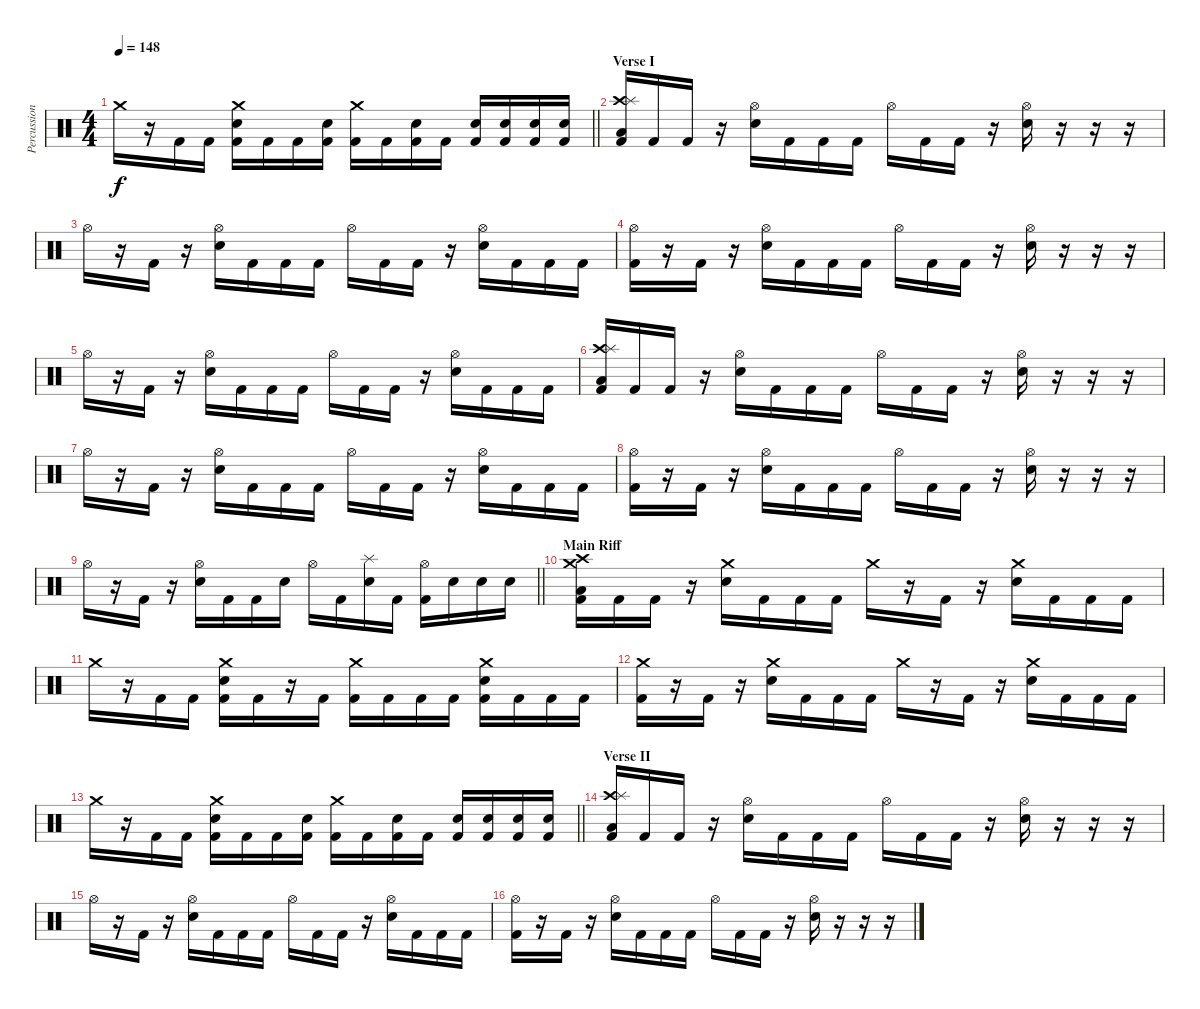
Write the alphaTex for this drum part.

\track ("Percussion" "Percussion") {instrument percussion}
\staff {score}
\articulation defaults
\ts (4 4)
\tempo 148
\clef neutral
\barLineRight lightlight
\ks c "Crash medium (hit)".16{dy f}
r.16 "Kick (hit) 2".16 "Kick (hit) 2".16 ("Crash medium (hit)" "Electric Snare (hit)" "Kick (hit) 2").16 "Kick (hit) 2".16 "Kick (hit) 2".16 ("Electric Snare (hit)" "Kick (hit) 2").16 ("Crash medium (hit)" "Kick (hit) 2").16 "Kick (hit) 2".16 ("Electric Snare (hit)" "Kick (hit) 2").16 "Kick (hit) 2".16 ("Electric Snare (hit)" "Kick (hit) 2").16 ("Electric Snare (hit)" "Kick (hit) 2").16 ("Electric Snare (hit)" "Kick (hit) 2").16 ("Electric Snare (hit)" "Kick (hit) 2").16 |
\section ("" "Verse I")
("Crash high (hit)" "Splash (hit)" "Low Floor Tom (hit)" "Kick (hit) 2").16 "Kick (hit) 2".16 "Kick (hit) 2".16 r.16 ("Hi-Hat (open)" "Electric Snare (hit)").16 "Kick (hit) 2".16 "Kick (hit) 2".16 "Kick (hit) 2".16 "Hi-Hat (open)".16 "Kick (hit) 2".16 "Kick (hit) 2".16 r.16 ("Hi-Hat (open)" "Electric Snare (hit)").16 r.16 r.16 r.16 |
"Hi-Hat (open)".16 r.16 "Kick (hit) 2".16 r.16 ("Hi-Hat (open)" "Electric Snare (hit)").16 "Kick (hit) 2".16 "Kick (hit) 2".16 "Kick (hit) 2".16 "Hi-Hat (open)".16 "Kick (hit) 2".16 "Kick (hit) 2".16 r.16 ("Hi-Hat (open)" "Electric Snare (hit)").16 "Kick (hit) 2".16 "Kick (hit) 2".16 "Kick (hit) 2".16 |
("Hi-Hat (open)" "Kick (hit) 2").16 r.16 "Kick (hit) 2".16 r.16 ("Hi-Hat (open)" "Electric Snare (hit)").16 "Kick (hit) 2".16 "Kick (hit) 2".16 "Kick (hit) 2".16 "Hi-Hat (open)".16 "Kick (hit) 2".16 "Kick (hit) 2".16 r.16 ("Hi-Hat (open)" "Electric Snare (hit)").16 r.16 r.16 r.16 |
"Hi-Hat (open)".16 r.16 "Kick (hit) 2".16 r.16 ("Hi-Hat (open)" "Electric Snare (hit)").16 "Kick (hit) 2".16 "Kick (hit) 2".16 "Kick (hit) 2".16 "Hi-Hat (open)".16 "Kick (hit) 2".16 "Kick (hit) 2".16 r.16 ("Hi-Hat (open)" "Electric Snare (hit)").16 "Kick (hit) 2".16 "Kick (hit) 2".16 "Kick (hit) 2".16 |
("Crash high (hit)" "Splash (hit)" "Low Floor Tom (hit)" "Kick (hit) 2").16 "Kick (hit) 2".16 "Kick (hit) 2".16 r.16 ("Hi-Hat (open)" "Electric Snare (hit)").16 "Kick (hit) 2".16 "Kick (hit) 2".16 "Kick (hit) 2".16 "Hi-Hat (open)".16 "Kick (hit) 2".16 "Kick (hit) 2".16 r.16 ("Hi-Hat (open)" "Electric Snare (hit)").16 r.16 r.16 r.16 |
"Hi-Hat (open)".16 r.16 "Kick (hit) 2".16 r.16 ("Hi-Hat (open)" "Electric Snare (hit)").16 "Kick (hit) 2".16 "Kick (hit) 2".16 "Kick (hit) 2".16 "Hi-Hat (open)".16 "Kick (hit) 2".16 "Kick (hit) 2".16 r.16 ("Hi-Hat (open)" "Electric Snare (hit)").16 "Kick (hit) 2".16 "Kick (hit) 2".16 "Kick (hit) 2".16 |
("Hi-Hat (open)" "Kick (hit) 2").16 r.16 "Kick (hit) 2".16 r.16 ("Hi-Hat (open)" "Electric Snare (hit)").16 "Kick (hit) 2".16 "Kick (hit) 2".16 "Kick (hit) 2".16 "Hi-Hat (open)".16 "Kick (hit) 2".16 "Kick (hit) 2".16 r.16 ("Hi-Hat (open)" "Electric Snare (hit)").16 r.16 r.16 r.16 |
\barLineRight lightlight "Hi-Hat (open)".16
r.16 "Kick (hit) 2".16 r.16 ("Hi-Hat (open)" "Electric Snare (hit)").16 "Kick (hit) 2".16 "Kick (hit) 2".16 "Electric Snare (hit)".16 "Hi-Hat (open)".16 "Kick (hit) 2".16 ("Splash (hit)" "Electric Snare (hit)").16 "Kick (hit) 2".16 ("Hi-Hat (open)" "Kick (hit) 2").16 "Electric Snare (hit)".16 "Electric Snare (hit)".16 "Electric Snare (hit)".16 |
\section ("" "Main Riff")
("Crash high (hit)" "Crash medium (hit)" "Low Floor Tom (hit)" "Kick (hit) 2").16 "Kick (hit) 2".16 "Kick (hit) 2".16 r.16 ("Crash medium (hit)" "Electric Snare (hit)").16 "Kick (hit) 2".16 "Kick (hit) 2".16 "Kick (hit) 2".16 "Crash medium (hit)".16 r.16 "Kick (hit) 2".16 r.16 ("Crash medium (hit)" "Electric Snare (hit)").16 "Kick (hit) 2".16 "Kick (hit) 2".16 "Kick (hit) 2".16 |
"Crash medium (hit)".16 r.16 "Kick (hit) 2".16 "Kick (hit) 2".16 ("Crash medium (hit)" "Electric Snare (hit)" "Kick (hit) 2").16 "Kick (hit) 2".16 r.16 "Kick (hit) 2".16 ("Crash medium (hit)" "Kick (hit) 2").16 "Kick (hit) 2".16 "Kick (hit) 2".16 "Kick (hit) 2".16 ("Crash medium (hit)" "Electric Snare (hit)" "Kick (hit) 2").16 "Kick (hit) 2".16 "Kick (hit) 2".16 "Kick (hit) 2".16 |
("Crash medium (hit)" "Kick (hit) 2").16 r.16 "Kick (hit) 2".16 r.16 ("Crash medium (hit)" "Electric Snare (hit)").16 "Kick (hit) 2".16 "Kick (hit) 2".16 "Kick (hit) 2".16 "Crash medium (hit)".16 r.16 "Kick (hit) 2".16 r.16 ("Crash medium (hit)" "Electric Snare (hit)").16 "Kick (hit) 2".16 "Kick (hit) 2".16 "Kick (hit) 2".16 |
\barLineRight lightlight "Crash medium (hit)".16
r.16 "Kick (hit) 2".16 "Kick (hit) 2".16 ("Crash medium (hit)" "Electric Snare (hit)" "Kick (hit) 2").16 "Kick (hit) 2".16 "Kick (hit) 2".16 ("Electric Snare (hit)" "Kick (hit) 2").16 ("Crash medium (hit)" "Kick (hit) 2").16 "Kick (hit) 2".16 ("Electric Snare (hit)" "Kick (hit) 2").16 "Kick (hit) 2".16 ("Electric Snare (hit)" "Kick (hit) 2").16 ("Electric Snare (hit)" "Kick (hit) 2").16 ("Electric Snare (hit)" "Kick (hit) 2").16 ("Electric Snare (hit)" "Kick (hit) 2").16 |
\section ("" "Verse II")
("Crash high (hit)" "Splash (hit)" "Low Floor Tom (hit)" "Kick (hit) 2").16 "Kick (hit) 2".16 "Kick (hit) 2".16 r.16 ("Hi-Hat (open)" "Electric Snare (hit)").16 "Kick (hit) 2".16 "Kick (hit) 2".16 "Kick (hit) 2".16 "Hi-Hat (open)".16 "Kick (hit) 2".16 "Kick (hit) 2".16 r.16 ("Hi-Hat (open)" "Electric Snare (hit)").16 r.16 r.16 r.16 |
"Hi-Hat (open)".16 r.16 "Kick (hit) 2".16 r.16 ("Hi-Hat (open)" "Electric Snare (hit)").16 "Kick (hit) 2".16 "Kick (hit) 2".16 "Kick (hit) 2".16 "Hi-Hat (open)".16 "Kick (hit) 2".16 "Kick (hit) 2".16 r.16 ("Hi-Hat (open)" "Electric Snare (hit)").16 "Kick (hit) 2".16 "Kick (hit) 2".16 "Kick (hit) 2".16 |
("Hi-Hat (open)" "Kick (hit) 2").16 r.16 "Kick (hit) 2".16 r.16 ("Hi-Hat (open)" "Electric Snare (hit)").16 "Kick (hit) 2".16 "Kick (hit) 2".16 "Kick (hit) 2".16 "Hi-Hat (open)".16 "Kick (hit) 2".16 "Kick (hit) 2".16 r.16 ("Hi-Hat (open)" "Electric Snare (hit)").16 r.16 r.16 r.16
